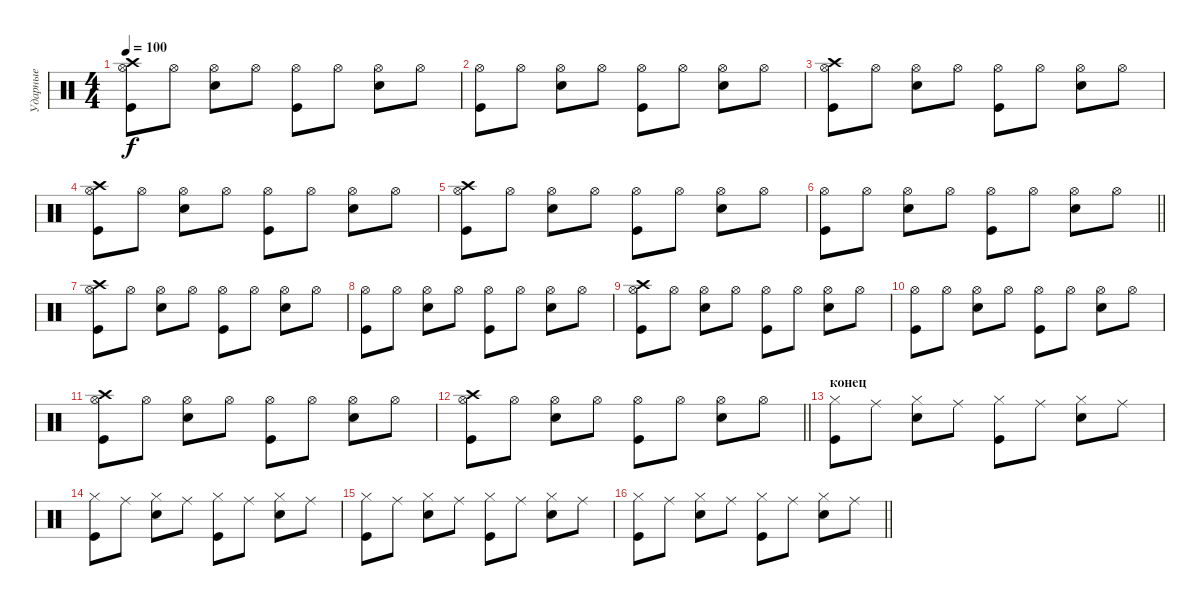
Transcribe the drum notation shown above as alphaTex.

\track ("Ударные" "Ударные") {instrument percussion}
\staff {score}
\articulation defaults
\ts (4 4)
\tempo 100
\clef neutral
\ks c
("Hi-Hat (open)" "Kick (hit)" "Crash high (hit)").8{dy f} "Hi-Hat (open)".8 ("Hi-Hat (open)" "Snare (hit) 2").8 "Hi-Hat (open)".8 ("Hi-Hat (open)" "Kick (hit)").8 "Hi-Hat (open)".8 ("Hi-Hat (open)" "Snare (hit) 2").8 "Hi-Hat (open)".8 |
("Hi-Hat (open)" "Kick (hit)").8 "Hi-Hat (open)".8 ("Hi-Hat (open)" "Snare (hit) 2").8 "Hi-Hat (open)".8 ("Hi-Hat (open)" "Kick (hit)").8 "Hi-Hat (open)".8 ("Hi-Hat (open)" "Snare (hit) 2").8 "Hi-Hat (open)".8 |
("Hi-Hat (open)" "Kick (hit)" "Crash high (hit)").8 "Hi-Hat (open)".8 ("Hi-Hat (open)" "Snare (hit) 2").8 "Hi-Hat (open)".8 ("Hi-Hat (open)" "Kick (hit)").8 "Hi-Hat (open)".8 ("Hi-Hat (open)" "Snare (hit) 2").8 "Hi-Hat (open)".8 |
("Hi-Hat (open)" "Kick (hit)" "Crash high (hit)").8 "Hi-Hat (open)".8 ("Hi-Hat (open)" "Snare (hit) 2").8 "Hi-Hat (open)".8 ("Hi-Hat (open)" "Kick (hit)").8 "Hi-Hat (open)".8 ("Hi-Hat (open)" "Snare (hit) 2").8 "Hi-Hat (open)".8 |
("Hi-Hat (open)" "Kick (hit)" "Crash high (hit)").8 "Hi-Hat (open)".8 ("Hi-Hat (open)" "Snare (hit) 2").8 "Hi-Hat (open)".8 ("Hi-Hat (open)" "Kick (hit)").8 "Hi-Hat (open)".8 ("Hi-Hat (open)" "Snare (hit) 2").8 "Hi-Hat (open)".8 |
\barLineRight lightlight
("Hi-Hat (open)" "Kick (hit)").8 "Hi-Hat (open)".8 ("Hi-Hat (open)" "Snare (hit) 2").8 "Hi-Hat (open)".8 ("Hi-Hat (open)" "Kick (hit)").8 "Hi-Hat (open)".8 ("Hi-Hat (open)" "Snare (hit) 2").8 "Hi-Hat (open)".8 |
("Hi-Hat (open)" "Kick (hit)" "Crash high (hit)").8 "Hi-Hat (open)".8 ("Hi-Hat (open)" "Snare (hit) 2").8 "Hi-Hat (open)".8 ("Hi-Hat (open)" "Kick (hit)").8 "Hi-Hat (open)".8 ("Hi-Hat (open)" "Snare (hit) 2").8 "Hi-Hat (open)".8 |
("Hi-Hat (open)" "Kick (hit)").8 "Hi-Hat (open)".8 ("Hi-Hat (open)" "Snare (hit) 2").8 "Hi-Hat (open)".8 ("Hi-Hat (open)" "Kick (hit)").8 "Hi-Hat (open)".8 ("Hi-Hat (open)" "Snare (hit) 2").8 "Hi-Hat (open)".8 |
("Hi-Hat (open)" "Kick (hit)" "Crash high (hit)").8 "Hi-Hat (open)".8 ("Hi-Hat (open)" "Snare (hit) 2").8 "Hi-Hat (open)".8 ("Hi-Hat (open)" "Kick (hit)").8 "Hi-Hat (open)".8 ("Hi-Hat (open)" "Snare (hit) 2").8 "Hi-Hat (open)".8 |
("Hi-Hat (open)" "Kick (hit)").8 "Hi-Hat (open)".8 ("Hi-Hat (open)" "Snare (hit) 2").8 "Hi-Hat (open)".8 ("Hi-Hat (open)" "Kick (hit)").8 "Hi-Hat (open)".8 ("Hi-Hat (open)" "Snare (hit) 2").8 "Hi-Hat (open)".8 |
("Hi-Hat (open)" "Kick (hit)" "Crash high (hit)").8 "Hi-Hat (open)".8 ("Hi-Hat (open)" "Snare (hit) 2").8 "Hi-Hat (open)".8 ("Hi-Hat (open)" "Kick (hit)").8 "Hi-Hat (open)".8 ("Hi-Hat (open)" "Snare (hit) 2").8 "Hi-Hat (open)".8 |
\barLineRight lightlight
("Hi-Hat (open)" "Kick (hit)" "Crash high (hit)").8 "Hi-Hat (open)".8 ("Hi-Hat (open)" "Snare (hit) 2").8 "Hi-Hat (open)".8 ("Hi-Hat (open)" "Kick (hit)").8 "Hi-Hat (open)".8 ("Hi-Hat (open)" "Snare (hit) 2").8 "Hi-Hat (open)".8 |
\section ("" "конец")
("Hi-Hat (closed)" "Kick (hit)").8 "Ride (middle)".8 ("Hi-Hat (closed)" "Snare (hit) 2").8 "Ride (middle)".8 ("Hi-Hat (closed)" "Kick (hit)").8 "Ride (middle)".8 ("Hi-Hat (closed)" "Snare (hit) 2").8 "Ride (middle)".8 |
("Hi-Hat (closed)" "Kick (hit)").8 "Ride (middle)".8 ("Hi-Hat (closed)" "Snare (hit) 2").8 "Ride (middle)".8 ("Hi-Hat (closed)" "Kick (hit)").8 "Ride (middle)".8 ("Hi-Hat (closed)" "Snare (hit) 2").8 "Ride (middle)".8 |
("Hi-Hat (closed)" "Kick (hit)").8 "Ride (middle)".8 ("Hi-Hat (closed)" "Snare (hit) 2").8 "Ride (middle)".8 ("Hi-Hat (closed)" "Kick (hit)").8 "Ride (middle)".8 ("Hi-Hat (closed)" "Snare (hit) 2").8 "Ride (middle)".8 |
\barLineRight lightlight
("Hi-Hat (closed)" "Kick (hit)").8 "Ride (middle)".8 ("Hi-Hat (closed)" "Snare (hit) 2").8 "Ride (middle)".8 ("Hi-Hat (closed)" "Kick (hit)").8 "Ride (middle)".8 ("Hi-Hat (closed)" "Snare (hit) 2").8 "Ride (middle)".8
